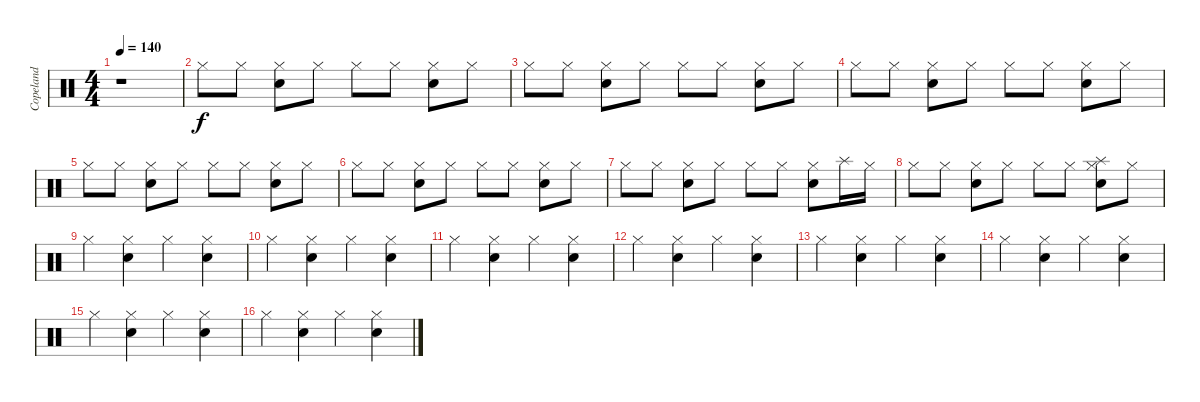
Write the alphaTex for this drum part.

\track ("Copeland" "Copeland") {instrument percussion}
\staff {score}
\articulation defaults
\ts (4 4)
\tempo 140
\clef neutral
\ks c
r.1{dy f} |
"Hi-Hat (closed)".8 "Hi-Hat (closed)".8 ("Hi-Hat (closed)" "Electric Snare (hit)").8 "Hi-Hat (closed)".8 "Hi-Hat (closed)".8 "Hi-Hat (closed)".8 ("Hi-Hat (closed)" "Electric Snare (hit)").8 "Hi-Hat (closed)".8 |
"Hi-Hat (closed)".8 "Hi-Hat (closed)".8 ("Hi-Hat (closed)" "Electric Snare (hit)").8 "Hi-Hat (closed)".8 "Hi-Hat (closed)".8 "Hi-Hat (closed)".8 ("Hi-Hat (closed)" "Electric Snare (hit)").8 "Hi-Hat (closed)".8 |
"Hi-Hat (closed)".8 "Hi-Hat (closed)".8 ("Hi-Hat (closed)" "Electric Snare (hit)").8 "Hi-Hat (closed)".8 "Hi-Hat (closed)".8 "Hi-Hat (closed)".8 ("Hi-Hat (closed)" "Electric Snare (hit)").8 "Hi-Hat (closed)".8 |
"Hi-Hat (closed)".8 "Hi-Hat (closed)".8 ("Hi-Hat (closed)" "Electric Snare (hit)").8 "Hi-Hat (closed)".8 "Hi-Hat (closed)".8 "Hi-Hat (closed)".8 ("Hi-Hat (closed)" "Electric Snare (hit)").8 "Hi-Hat (closed)".8 |
"Hi-Hat (closed)".8 "Hi-Hat (closed)".8 ("Hi-Hat (closed)" "Electric Snare (hit)").8 "Hi-Hat (closed)".8 "Hi-Hat (closed)".8 "Hi-Hat (closed)".8 ("Hi-Hat (closed)" "Electric Snare (hit)").8 "Hi-Hat (closed)".8 |
"Hi-Hat (closed)".8 "Hi-Hat (closed)".8 ("Hi-Hat (closed)" "Electric Snare (hit)").8 "Hi-Hat (closed)".8 "Hi-Hat (closed)".8 "Hi-Hat (closed)".8 ("Hi-Hat (closed)" "Electric Snare (hit)").8 "Splash (hit)".16 "Hi-Hat (closed)".16 |
"Hi-Hat (closed)".8 "Hi-Hat (closed)".8 ("Hi-Hat (closed)" "Electric Snare (hit)").8 "Hi-Hat (closed)".8 "Hi-Hat (closed)".8 "Hi-Hat (closed)".8 ("Hi-Hat (closed)" "Splash (hit)" "Electric Snare (hit)").8 "Hi-Hat (closed)".8 |
"Hi-Hat (closed)".4 ("Hi-Hat (closed)" "Electric Snare (hit)").4 "Hi-Hat (closed)".4 ("Hi-Hat (closed)" "Electric Snare (hit)").4 |
"Hi-Hat (closed)".4 ("Hi-Hat (closed)" "Electric Snare (hit)").4 "Hi-Hat (closed)".4 ("Hi-Hat (closed)" "Electric Snare (hit)").4 |
"Hi-Hat (closed)".4 ("Hi-Hat (closed)" "Electric Snare (hit)").4 "Hi-Hat (closed)".4 ("Hi-Hat (closed)" "Electric Snare (hit)").4 |
"Hi-Hat (closed)".4 ("Hi-Hat (closed)" "Electric Snare (hit)").4 "Hi-Hat (closed)".4 ("Hi-Hat (closed)" "Electric Snare (hit)").4 |
"Hi-Hat (closed)".4 ("Hi-Hat (closed)" "Electric Snare (hit)").4 "Hi-Hat (closed)".4 ("Hi-Hat (closed)" "Electric Snare (hit)").4 |
"Hi-Hat (closed)".4 ("Hi-Hat (closed)" "Electric Snare (hit)").4 "Hi-Hat (closed)".4 ("Hi-Hat (closed)" "Electric Snare (hit)").4 |
"Hi-Hat (closed)".4 ("Hi-Hat (closed)" "Electric Snare (hit)").4 "Hi-Hat (closed)".4 ("Hi-Hat (closed)" "Electric Snare (hit)").4 |
"Hi-Hat (closed)".4 ("Hi-Hat (closed)" "Electric Snare (hit)").4 "Hi-Hat (closed)".4 ("Hi-Hat (closed)" "Electric Snare (hit)").4
